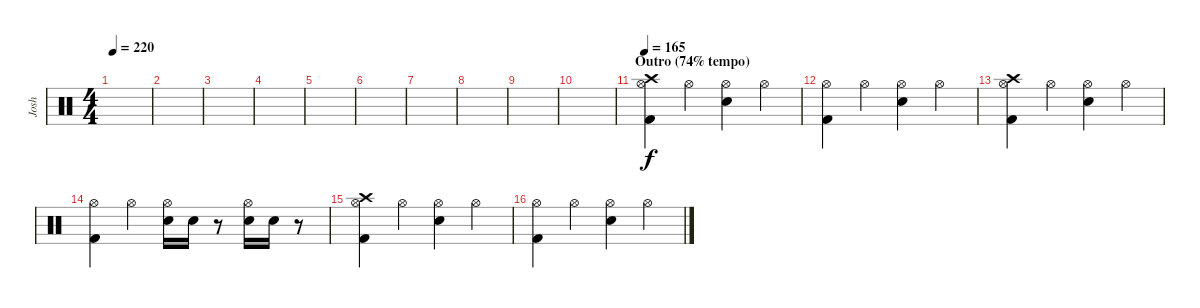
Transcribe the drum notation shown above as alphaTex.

\track ("Josh" "Josh") {instrument percussion}
\staff {score}
\articulation defaults
\ts (4 4)
\tempo 220
\clef neutral
\ks c
|
|
|
|
|
|
|
|
|
|
\section ("" "Outro (74% tempo)")
\tempo 165
("Crash high (hit)" "Hi-Hat (open)" "Kick (hit) 2").4 "Hi-Hat (open)".4 ("Hi-Hat (open)" "Snare (hit) 2").4 "Hi-Hat (open)".4 |
("Hi-Hat (open)" "Kick (hit) 2").4 "Hi-Hat (open)".4 ("Hi-Hat (open)" "Snare (hit) 2").4 "Hi-Hat (open)".4 |
("Crash high (hit)" "Hi-Hat (open)" "Kick (hit) 2").4 "Hi-Hat (open)".4 ("Hi-Hat (open)" "Snare (hit) 2").4 "Hi-Hat (open)".4 |
("Hi-Hat (open)" "Kick (hit) 2").4 "Hi-Hat (open)".4 ("Hi-Hat (open)" "Snare (hit) 2").16 "Snare (hit) 2".16 r.8 ("Hi-Hat (open)" "Snare (hit) 2").16 "Snare (hit) 2".16 r.8 |
("Crash high (hit)" "Hi-Hat (open)" "Kick (hit) 2").4 "Hi-Hat (open)".4 ("Hi-Hat (open)" "Snare (hit) 2").4 "Hi-Hat (open)".4 |
("Hi-Hat (open)" "Kick (hit) 2").4 "Hi-Hat (open)".4 ("Hi-Hat (open)" "Snare (hit) 2").4 "Hi-Hat (open)".4
